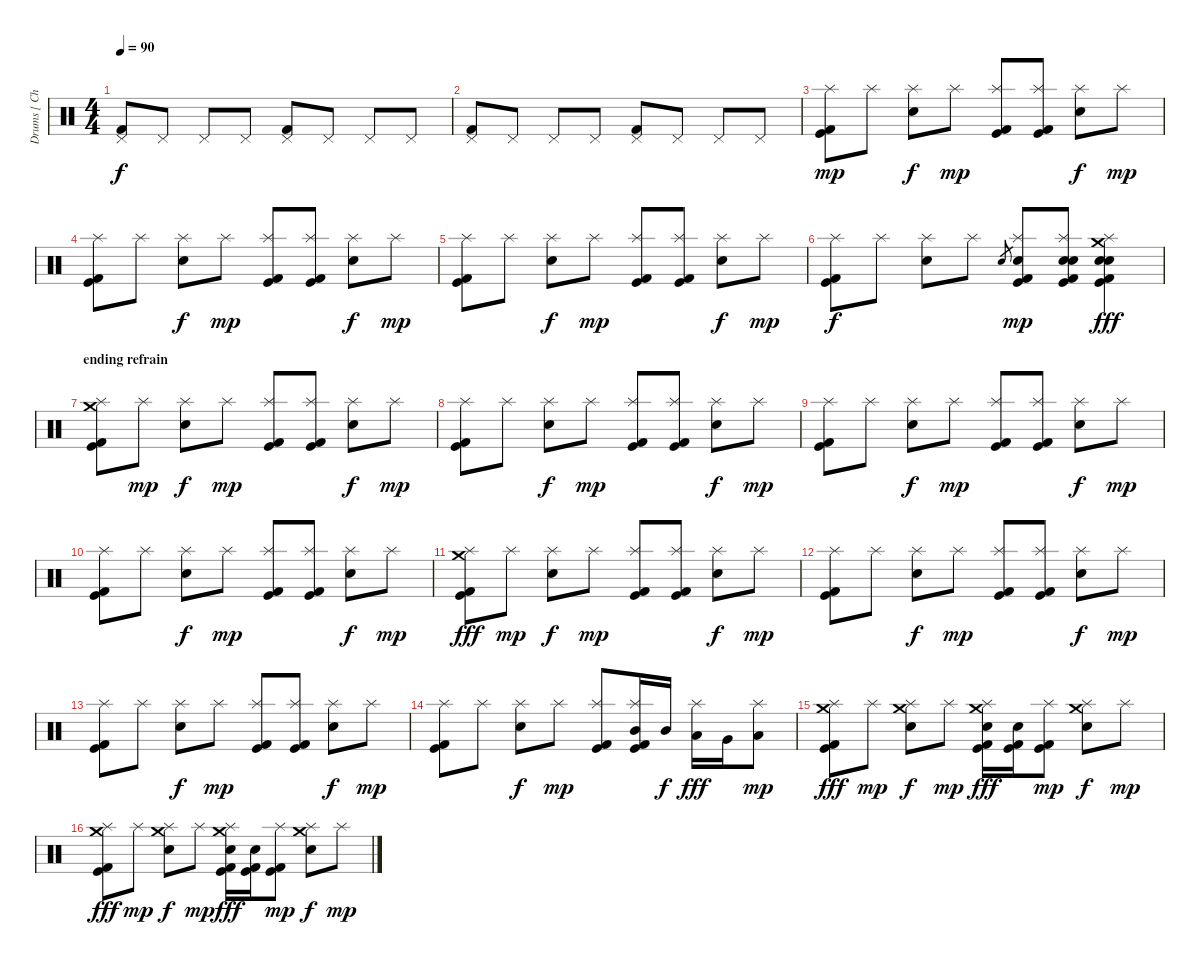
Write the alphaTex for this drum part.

\track ("Drums [ Christoph Schneider ]" "Drums [ Ch") {instrument percussion}
\staff {score}
\articulation defaults
\ts (4 4)
\tempo 90
\clef neutral
\ks c
("Pedal Hi-Hat (hit)" "Kick (hit) 2").8{dy f} "Pedal Hi-Hat (hit)".8 "Pedal Hi-Hat (hit)".8 "Pedal Hi-Hat (hit)".8 ("Pedal Hi-Hat (hit)" "Kick (hit) 2").8 "Pedal Hi-Hat (hit)".8 "Pedal Hi-Hat (hit)".8 "Pedal Hi-Hat (hit)".8 |
("Pedal Hi-Hat (hit)" "Kick (hit) 2").8 "Pedal Hi-Hat (hit)".8 "Pedal Hi-Hat (hit)".8 "Pedal Hi-Hat (hit)".8 ("Pedal Hi-Hat (hit)" "Kick (hit) 2").8 "Pedal Hi-Hat (hit)".8 "Pedal Hi-Hat (hit)".8 "Pedal Hi-Hat (hit)".8 |
("Splash (hit)" "Kick (hit)" "Kick (hit) 2").8{dy mp} "Splash (hit)".8 ("Splash (hit)" "Snare (hit) 2").8{dy f} "Splash (hit)".8{dy mp} ("Splash (hit)" "Kick (hit)" "Kick (hit) 2").8 ("Splash (hit)" "Kick (hit)" "Kick (hit) 2").8 ("Splash (hit)" "Snare (hit) 2").8{dy f} "Splash (hit)".8{dy mp} |
("Splash (hit)" "Kick (hit)" "Kick (hit) 2").8 "Splash (hit)".8 ("Splash (hit)" "Snare (hit) 2").8{dy f} "Splash (hit)".8{dy mp} ("Splash (hit)" "Kick (hit)" "Kick (hit) 2").8 ("Splash (hit)" "Kick (hit)" "Kick (hit) 2").8 ("Splash (hit)" "Snare (hit) 2").8{dy f} "Splash (hit)".8{dy mp} |
("Splash (hit)" "Kick (hit)" "Kick (hit) 2").8 "Splash (hit)".8 ("Splash (hit)" "Snare (hit) 2").8{dy f} "Splash (hit)".8{dy mp} ("Splash (hit)" "Kick (hit)" "Kick (hit) 2").8 ("Splash (hit)" "Kick (hit)" "Kick (hit) 2").8 ("Splash (hit)" "Snare (hit) 2").8{dy f} "Splash (hit)".8{dy mp} |
("Splash (hit)" "Kick (hit)" "Kick (hit) 2").8{dy f} "Splash (hit)".8 ("Splash (hit)" "Snare (hit) 2").8 "Splash (hit)".8 "Electric Snare (hit)".8{gr} ("Splash (hit)" "Kick (hit)" "Kick (hit) 2" "Electric Snare (hit)"{tr (40 32)}).8{dy mp} ("Splash (hit)" "Kick (hit)" "Kick (hit) 2" "Snare (hit) 2" "Snare (hit) 2"{tr (38 32)}).8 ("Splash (hit)" "Crash medium (hit)" "Snare (hit) 2" "Snare (hit) 2" "Kick (hit) 2" "Kick (hit)").4{dy fff} |
\section ("" "ending refrain")
("Splash (hit)" "Kick (hit)" "Kick (hit) 2" "Crash medium (hit)").8 "Splash (hit)".8{dy mp} ("Splash (hit)" "Snare (hit) 2").8{dy f} "Splash (hit)".8{dy mp} ("Splash (hit)" "Kick (hit)" "Kick (hit) 2").8 ("Splash (hit)" "Kick (hit)" "Kick (hit) 2").8 ("Splash (hit)" "Snare (hit) 2").8{dy f} "Splash (hit)".8{dy mp} |
("Splash (hit)" "Kick (hit)" "Kick (hit) 2").8 "Splash (hit)".8 ("Splash (hit)" "Snare (hit) 2").8{dy f} "Splash (hit)".8{dy mp} ("Splash (hit)" "Kick (hit)" "Kick (hit) 2").8 ("Splash (hit)" "Kick (hit)" "Kick (hit) 2").8 ("Splash (hit)" "Snare (hit) 2").8{dy f} "Splash (hit)".8{dy mp} |
("Splash (hit)" "Kick (hit)" "Kick (hit) 2").8 "Splash (hit)".8 ("Splash (hit)" "Snare (hit) 2").8{dy f} "Splash (hit)".8{dy mp} ("Splash (hit)" "Kick (hit)" "Kick (hit) 2").8 ("Splash (hit)" "Kick (hit)" "Kick (hit) 2").8 ("Splash (hit)" "Snare (hit) 2").8{dy f} "Splash (hit)".8{dy mp} |
("Splash (hit)" "Kick (hit)" "Kick (hit) 2").8 "Splash (hit)".8 ("Splash (hit)" "Snare (hit) 2").8{dy f} "Splash (hit)".8{dy mp} ("Splash (hit)" "Kick (hit)" "Kick (hit) 2").8 ("Splash (hit)" "Kick (hit)" "Kick (hit) 2").8 ("Splash (hit)" "Snare (hit) 2").8{dy f} "Splash (hit)".8{dy mp} |
("Splash (hit)" "Kick (hit)" "Kick (hit) 2" "Crash medium (hit)").8{dy fff} "Splash (hit)".8{dy mp} ("Splash (hit)" "Snare (hit) 2").8{dy f} "Splash (hit)".8{dy mp} ("Splash (hit)" "Kick (hit)" "Kick (hit) 2").8 ("Splash (hit)" "Kick (hit)" "Kick (hit) 2").8 ("Splash (hit)" "Snare (hit) 2").8{dy f} "Splash (hit)".8{dy mp} |
("Splash (hit)" "Kick (hit)" "Kick (hit) 2").8 "Splash (hit)".8 ("Splash (hit)" "Snare (hit) 2").8{dy f} "Splash (hit)".8{dy mp} ("Splash (hit)" "Kick (hit)" "Kick (hit) 2").8 ("Splash (hit)" "Kick (hit)" "Kick (hit) 2").8 ("Splash (hit)" "Snare (hit) 2").8{dy f} "Splash (hit)".8{dy mp} |
("Splash (hit)" "Kick (hit)" "Kick (hit) 2").8 "Splash (hit)".8 ("Splash (hit)" "Snare (hit) 2").8{dy f} "Splash (hit)".8{dy mp} ("Splash (hit)" "Kick (hit)" "Kick (hit) 2").8 ("Splash (hit)" "Kick (hit)" "Kick (hit) 2").8 ("Splash (hit)" "Snare (hit) 2").8{dy f} "Splash (hit)".8{dy mp} |
("Splash (hit)" "Kick (hit)" "Kick (hit) 2").8 "Splash (hit)".8 ("Splash (hit)" "Snare (hit) 2").8{dy f} "Splash (hit)".8{dy mp} ("Splash (hit)" "Kick (hit)" "Kick (hit) 2").8 ("Splash (hit)" "Kick (hit)" "Kick (hit) 2" "Mid Tom (hit)").16 "Mid Tom (hit)".16{dy f} ("Splash (hit)" "Low Tom (hit)").16{dy fff} "Very Low Tom (hit)".16 ("Splash (hit)" "Low Floor Tom (hit)").8{dy mp} |
("Splash (hit)" "Kick (hit)" "Kick (hit) 2" "Crash medium (hit)").8{dy fff} "Splash (hit)".8{dy mp} ("Splash (hit)" "Snare (hit) 2" "Crash medium (hit)").8{dy f} "Splash (hit)".8{dy mp} ("Splash (hit)" "Kick (hit)" "Kick (hit) 2" "Snare (hit) 2" "Crash medium (hit)").16{dy fff} ("Kick (hit)" "Kick (hit) 2" "Snare (hit) 2").16 ("Splash (hit)" "Kick (hit)" "Kick (hit) 2").8{dy mp} ("Splash (hit)" "Snare (hit) 2" "Crash medium (hit)").8{dy f} "Splash (hit)".8{dy mp} |
("Splash (hit)" "Kick (hit)" "Kick (hit) 2" "Crash medium (hit)").8{dy fff} "Splash (hit)".8{dy mp} ("Splash (hit)" "Snare (hit) 2" "Crash medium (hit)").8{dy f} "Splash (hit)".8{dy mp} ("Splash (hit)" "Kick (hit)" "Kick (hit) 2" "Snare (hit) 2" "Crash medium (hit)").16{dy fff} ("Kick (hit)" "Kick (hit) 2" "Snare (hit) 2").16 ("Splash (hit)" "Kick (hit)" "Kick (hit) 2").8{dy mp} ("Splash (hit)" "Snare (hit) 2" "Crash medium (hit)").8{dy f} "Splash (hit)".8{dy mp}
